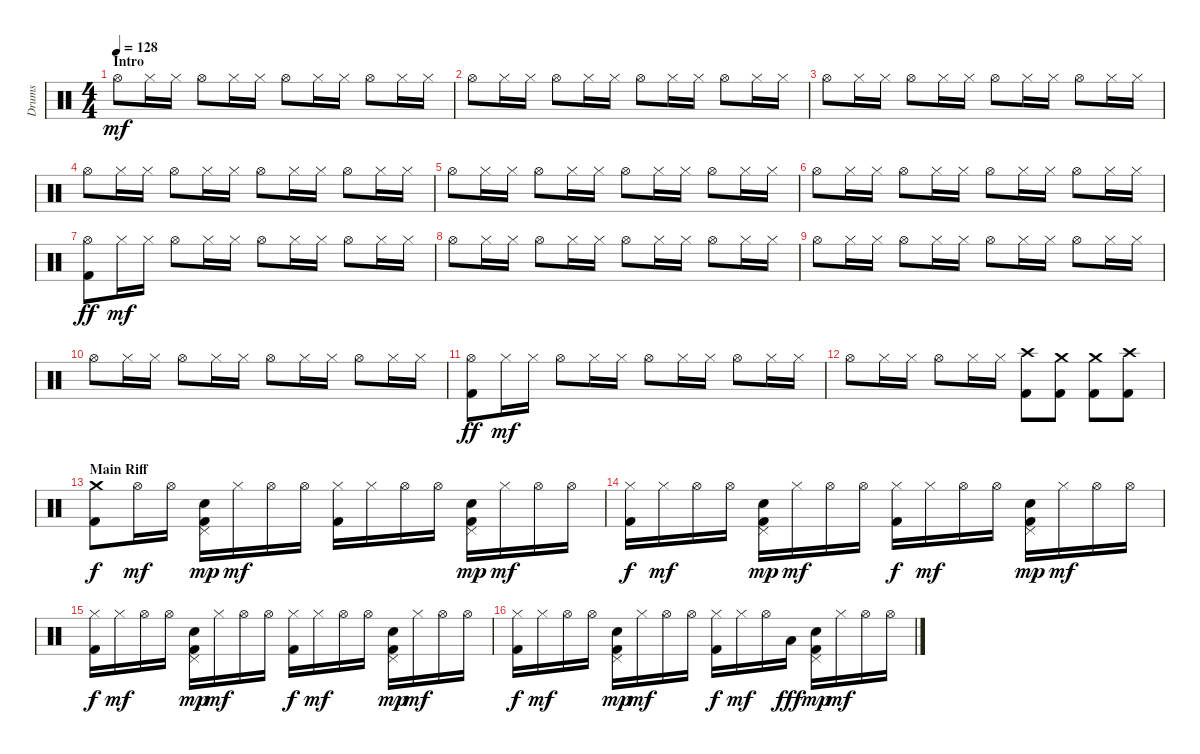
\track ("Drums" "Drums") {instrument percussion}
\staff {score}
\articulation defaults
\ts (4 4)
\section ("" "Intro")
\tempo 128
\clef neutral
\ks c "Hi-Hat (open)".8{dy mf} "Hi-Hat (closed)".16 "Hi-Hat (closed)".16 "Hi-Hat (open)".8 "Hi-Hat (closed)".16 "Hi-Hat (closed)".16 "Hi-Hat (open)".8 "Hi-Hat (closed)".16 "Hi-Hat (closed)".16 "Hi-Hat (open)".8 "Hi-Hat (closed)".16 "Hi-Hat (closed)".16
|
"Hi-Hat (open)".8 "Hi-Hat (closed)".16 "Hi-Hat (closed)".16 "Hi-Hat (open)".8 "Hi-Hat (closed)".16 "Hi-Hat (closed)".16 "Hi-Hat (open)".8 "Hi-Hat (closed)".16 "Hi-Hat (closed)".16 "Hi-Hat (open)".8 "Hi-Hat (closed)".16 "Hi-Hat (closed)".16 |
"Hi-Hat (open)".8 "Hi-Hat (closed)".16 "Hi-Hat (closed)".16 "Hi-Hat (open)".8 "Hi-Hat (closed)".16 "Hi-Hat (closed)".16 "Hi-Hat (open)".8 "Hi-Hat (closed)".16 "Hi-Hat (closed)".16 "Hi-Hat (open)".8 "Hi-Hat (closed)".16 "Hi-Hat (closed)".16 |
"Hi-Hat (open)".8 "Hi-Hat (closed)".16 "Hi-Hat (closed)".16 "Hi-Hat (open)".8 "Hi-Hat (closed)".16 "Hi-Hat (closed)".16 "Hi-Hat (open)".8 "Hi-Hat (closed)".16 "Hi-Hat (closed)".16 "Hi-Hat (open)".8 "Hi-Hat (closed)".16 "Hi-Hat (closed)".16 |
"Hi-Hat (open)".8 "Hi-Hat (closed)".16 "Hi-Hat (closed)".16 "Hi-Hat (open)".8 "Hi-Hat (closed)".16 "Hi-Hat (closed)".16 "Hi-Hat (open)".8 "Hi-Hat (closed)".16 "Hi-Hat (closed)".16 "Hi-Hat (open)".8 "Hi-Hat (closed)".16 "Hi-Hat (closed)".16 |
"Hi-Hat (open)".8 "Hi-Hat (closed)".16 "Hi-Hat (closed)".16 "Hi-Hat (open)".8 "Hi-Hat (closed)".16 "Hi-Hat (closed)".16 "Hi-Hat (open)".8 "Hi-Hat (closed)".16 "Hi-Hat (closed)".16 "Hi-Hat (open)".8 "Hi-Hat (closed)".16 "Hi-Hat (closed)".16 |
("Hi-Hat (open)" "Kick (hit) 2").8{dy ff} "Hi-Hat (closed)".16{dy mf} "Hi-Hat (closed)".16 "Hi-Hat (open)".8 "Hi-Hat (closed)".16 "Hi-Hat (closed)".16 "Hi-Hat (open)".8 "Hi-Hat (closed)".16 "Hi-Hat (closed)".16 "Hi-Hat (open)".8 "Hi-Hat (closed)".16 "Hi-Hat (closed)".16 |
"Hi-Hat (open)".8 "Hi-Hat (closed)".16 "Hi-Hat (closed)".16 "Hi-Hat (open)".8 "Hi-Hat (closed)".16 "Hi-Hat (closed)".16 "Hi-Hat (open)".8 "Hi-Hat (closed)".16 "Hi-Hat (closed)".16 "Hi-Hat (open)".8 "Hi-Hat (closed)".16 "Hi-Hat (closed)".16 |
"Hi-Hat (open)".8 "Hi-Hat (closed)".16 "Hi-Hat (closed)".16 "Hi-Hat (open)".8 "Hi-Hat (closed)".16 "Hi-Hat (closed)".16 "Hi-Hat (open)".8 "Hi-Hat (closed)".16 "Hi-Hat (closed)".16 "Hi-Hat (open)".8 "Hi-Hat (closed)".16 "Hi-Hat (closed)".16 |
"Hi-Hat (open)".8 "Hi-Hat (closed)".16 "Hi-Hat (closed)".16 "Hi-Hat (open)".8 "Hi-Hat (closed)".16 "Hi-Hat (closed)".16 "Hi-Hat (open)".8 "Hi-Hat (closed)".16 "Hi-Hat (closed)".16 "Hi-Hat (open)".8 "Hi-Hat (closed)".16 "Hi-Hat (closed)".16 |
("Hi-Hat (open)" "Kick (hit) 2").8{dy ff} "Hi-Hat (closed)".16{dy mf} "Hi-Hat (closed)".16 "Hi-Hat (open)".8 "Hi-Hat (closed)".16 "Hi-Hat (closed)".16 "Hi-Hat (open)".8 "Hi-Hat (closed)".16 "Hi-Hat (closed)".16 "Hi-Hat (open)".8 "Hi-Hat (closed)".16 "Hi-Hat (closed)".16 |
"Hi-Hat (open)".8 "Hi-Hat (closed)".16 "Hi-Hat (closed)".16 "Hi-Hat (open)".8 "Hi-Hat (closed)".16 "Hi-Hat (closed)".16 ("Crash high (hit)" "Kick (hit) 2").8 ("Crash medium (hit)" "Kick (hit) 2").8 ("Crash medium (hit)" "Kick (hit) 2").8 ("Crash high (hit)" "Kick (hit) 2").8 |
\section ("" "Main Riff")
("Crash medium (hit)" "Kick (hit) 2").8{dy f} "Hi-Hat (open)".16{dy mf} "Hi-Hat (open)".16 ("Pedal Hi-Hat (hit)" "Electric Snare (hit)" "Kick (hit) 2").16{dy mp} "Hi-Hat (closed)".16{dy mf} "Hi-Hat (open)".16 "Hi-Hat (open)".16 ("Hi-Hat (closed)" "Kick (hit) 2").16 "Hi-Hat (closed)".16 "Hi-Hat (open)".16 "Hi-Hat (open)".16 ("Pedal Hi-Hat (hit)" "Electric Snare (hit)" "Kick (hit) 2").16{dy mp} "Hi-Hat (closed)".16{dy mf} "Hi-Hat (open)".16 "Hi-Hat (open)".16 |
("Hi-Hat (closed)" "Kick (hit) 2").16{dy f} "Hi-Hat (closed)".16{dy mf} "Hi-Hat (open)".16 "Hi-Hat (open)".16 ("Pedal Hi-Hat (hit)" "Electric Snare (hit)" "Kick (hit) 2").16{dy mp} "Hi-Hat (closed)".16{dy mf} "Hi-Hat (open)".16 "Hi-Hat (open)".16 ("Hi-Hat (closed)" "Kick (hit) 2").16{dy f} "Hi-Hat (closed)".16{dy mf} "Hi-Hat (open)".16 "Hi-Hat (open)".16 ("Pedal Hi-Hat (hit)" "Electric Snare (hit)" "Kick (hit) 2").16{dy mp} "Hi-Hat (closed)".16{dy mf} "Hi-Hat (open)".16 "Hi-Hat (open)".16 |
("Hi-Hat (closed)" "Kick (hit) 2").16{dy f} "Hi-Hat (closed)".16{dy mf} "Hi-Hat (open)".16 "Hi-Hat (open)".16 ("Pedal Hi-Hat (hit)" "Electric Snare (hit)" "Kick (hit) 2").16{dy mp} "Hi-Hat (closed)".16{dy mf} "Hi-Hat (open)".16 "Hi-Hat (open)".16 ("Hi-Hat (closed)" "Kick (hit) 2").16{dy f} "Hi-Hat (closed)".16{dy mf} "Hi-Hat (open)".16 "Hi-Hat (open)".16 ("Pedal Hi-Hat (hit)" "Electric Snare (hit)" "Kick (hit) 2").16{dy mp} "Hi-Hat (closed)".16{dy mf} "Hi-Hat (open)".16 "Hi-Hat (open)".16 |
("Hi-Hat (closed)" "Kick (hit) 2").16{dy f} "Hi-Hat (closed)".16{dy mf} "Hi-Hat (open)".16 "Hi-Hat (open)".16 ("Pedal Hi-Hat (hit)" "Electric Snare (hit)" "Kick (hit) 2").16{dy mp} "Hi-Hat (closed)".16{dy mf} "Hi-Hat (open)".16 "Hi-Hat (open)".16 ("Hi-Hat (closed)" "Kick (hit) 2").16{dy f} "Hi-Hat (closed)".16{dy mf} "Hi-Hat (open)".16 "Low Tom (hit)".16{dy fff} ("Pedal Hi-Hat (hit)" "Electric Snare (hit)" "Kick (hit) 2").16{dy mp} "Hi-Hat (closed)".16{dy mf} "Hi-Hat (open)".16 "Hi-Hat (open)".16
